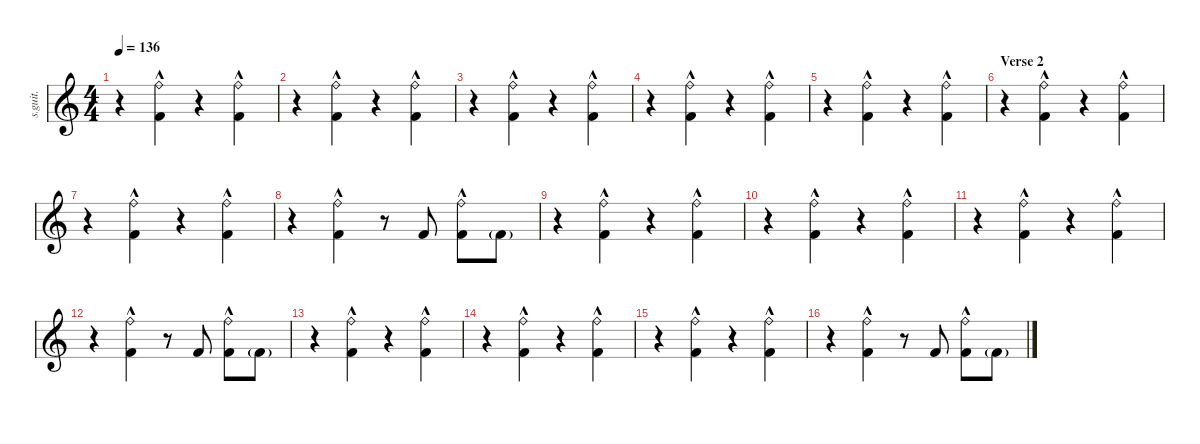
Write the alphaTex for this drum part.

\defaultSystemsLayout 4
\hideDynamics
\bracketExtendMode nobrackets
\track ("Chris Fehn" "s.guit.") {instrument percussion}
\staff {score}
\articulation defaults
\ts (4 4)
\tempo 136
\clef g2
\ks c
r.4{dy fff} ("Ride (bell)"{hac} "Kick (hit) 2"{hac}).4{lyrics (0 "") lyrics (1 "") lyrics (2 "") lyrics (3 "") lyrics (4 "")} r.4 ("Ride (bell)"{hac} "Kick (hit) 2"{hac}).4{lyrics (0 "") lyrics (1 "") lyrics (2 "") lyrics (3 "") lyrics (4 "")} |
r.4 ("Ride (bell)"{hac} "Kick (hit) 2"{hac}).4{lyrics (0 "") lyrics (1 "") lyrics (2 "") lyrics (3 "") lyrics (4 "")} r.4 ("Ride (bell)"{hac} "Kick (hit) 2"{hac}).4{lyrics (0 "") lyrics (1 "") lyrics (2 "") lyrics (3 "") lyrics (4 "")} |
r.4 ("Ride (bell)"{hac} "Kick (hit) 2"{hac}).4{lyrics (0 "") lyrics (1 "") lyrics (2 "") lyrics (3 "") lyrics (4 "")} r.4 ("Ride (bell)"{hac} "Kick (hit) 2"{hac}).4{lyrics (0 "") lyrics (1 "") lyrics (2 "") lyrics (3 "") lyrics (4 "")} |
r.4 ("Ride (bell)"{hac} "Kick (hit) 2"{hac}).4{lyrics (0 "") lyrics (1 "") lyrics (2 "") lyrics (3 "") lyrics (4 "")} r.4 ("Ride (bell)"{hac} "Kick (hit) 2"{hac}).4{lyrics (0 "") lyrics (1 "") lyrics (2 "") lyrics (3 "") lyrics (4 "")} |
r.4 ("Ride (bell)"{hac} "Kick (hit) 2"{hac}).4{lyrics (0 "") lyrics (1 "") lyrics (2 "") lyrics (3 "") lyrics (4 "")} r.4 ("Ride (bell)"{hac} "Kick (hit) 2"{hac}).4{lyrics (0 "") lyrics (1 "") lyrics (2 "") lyrics (3 "") lyrics (4 "")} |
\section ("" "Verse 2")
r.4 ("Ride (bell)"{hac} "Kick (hit) 2"{hac}).4{lyrics (0 "") lyrics (1 "") lyrics (2 "") lyrics (3 "") lyrics (4 "")} r.4 ("Ride (bell)"{hac} "Kick (hit) 2"{hac}).4{lyrics (0 "") lyrics (1 "") lyrics (2 "") lyrics (3 "") lyrics (4 "")} |
r.4 ("Ride (bell)"{hac} "Kick (hit) 2"{hac}).4{lyrics (0 "") lyrics (1 "") lyrics (2 "") lyrics (3 "") lyrics (4 "")} r.4 ("Ride (bell)"{hac} "Kick (hit) 2"{hac}).4{lyrics (0 "") lyrics (1 "") lyrics (2 "") lyrics (3 "") lyrics (4 "")} |
r.4 ("Ride (bell)"{hac} "Kick (hit) 2"{hac}).4{lyrics (0 "") lyrics (1 "") lyrics (2 "") lyrics (3 "") lyrics (4 "")} r.8 "Kick (hit) 2".8{lyrics (0 "") lyrics (1 "") lyrics (2 "") lyrics (3 "") lyrics (4 "")} ("Ride (bell)"{hac} "Kick (hit) 2"{hac}).8{lyrics (0 "") lyrics (1 "") lyrics (2 "") lyrics (3 "") lyrics (4 "")} "Kick (hit) 2"{g}.8{lyrics (0 "") lyrics (1 "") lyrics (2 "") lyrics (3 "") lyrics (4 "")} |
r.4 ("Ride (bell)"{hac} "Kick (hit) 2"{hac}).4{lyrics (0 "") lyrics (1 "") lyrics (2 "") lyrics (3 "") lyrics (4 "")} r.4 ("Ride (bell)"{hac} "Kick (hit) 2"{hac}).4{lyrics (0 "") lyrics (1 "") lyrics (2 "") lyrics (3 "") lyrics (4 "")} |
r.4 ("Ride (bell)"{hac} "Kick (hit) 2"{hac}).4{lyrics (0 "") lyrics (1 "") lyrics (2 "") lyrics (3 "") lyrics (4 "")} r.4 ("Ride (bell)"{hac} "Kick (hit) 2"{hac}).4{lyrics (0 "") lyrics (1 "") lyrics (2 "") lyrics (3 "") lyrics (4 "")} |
r.4 ("Ride (bell)"{hac} "Kick (hit) 2"{hac}).4{lyrics (0 "") lyrics (1 "") lyrics (2 "") lyrics (3 "") lyrics (4 "")} r.4 ("Ride (bell)"{hac} "Kick (hit) 2"{hac}).4{lyrics (0 "") lyrics (1 "") lyrics (2 "") lyrics (3 "") lyrics (4 "")} |
r.4 ("Ride (bell)"{hac} "Kick (hit) 2"{hac}).4{lyrics (0 "") lyrics (1 "") lyrics (2 "") lyrics (3 "") lyrics (4 "")} r.8 "Kick (hit) 2".8{lyrics (0 "") lyrics (1 "") lyrics (2 "") lyrics (3 "") lyrics (4 "")} ("Ride (bell)"{hac} "Kick (hit) 2"{hac}).8{lyrics (0 "") lyrics (1 "") lyrics (2 "") lyrics (3 "") lyrics (4 "")} "Kick (hit) 2"{g}.8{lyrics (0 "") lyrics (1 "") lyrics (2 "") lyrics (3 "") lyrics (4 "")} |
r.4 ("Ride (bell)"{hac} "Kick (hit) 2"{hac}).4{lyrics (0 "") lyrics (1 "") lyrics (2 "") lyrics (3 "") lyrics (4 "")} r.4 ("Ride (bell)"{hac} "Kick (hit) 2"{hac}).4{lyrics (0 "") lyrics (1 "") lyrics (2 "") lyrics (3 "") lyrics (4 "")} |
r.4 ("Ride (bell)"{hac} "Kick (hit) 2"{hac}).4{lyrics (0 "") lyrics (1 "") lyrics (2 "") lyrics (3 "") lyrics (4 "")} r.4 ("Ride (bell)"{hac} "Kick (hit) 2"{hac}).4{lyrics (0 "") lyrics (1 "") lyrics (2 "") lyrics (3 "") lyrics (4 "")} |
r.4 ("Ride (bell)"{hac} "Kick (hit) 2"{hac}).4{lyrics (0 "") lyrics (1 "") lyrics (2 "") lyrics (3 "") lyrics (4 "")} r.4 ("Ride (bell)"{hac} "Kick (hit) 2"{hac}).4{lyrics (0 "") lyrics (1 "") lyrics (2 "") lyrics (3 "") lyrics (4 "")} |
r.4 ("Ride (bell)"{hac} "Kick (hit) 2"{hac}).4{lyrics (0 "") lyrics (1 "") lyrics (2 "") lyrics (3 "") lyrics (4 "")} r.8 "Kick (hit) 2".8{lyrics (0 "") lyrics (1 "") lyrics (2 "") lyrics (3 "") lyrics (4 "")} ("Ride (bell)"{hac} "Kick (hit) 2"{hac}).8{lyrics (0 "") lyrics (1 "") lyrics (2 "") lyrics (3 "") lyrics (4 "")} "Kick (hit) 2"{g}.8{lyrics (0 "") lyrics (1 "") lyrics (2 "") lyrics (3 "") lyrics (4 "")}
